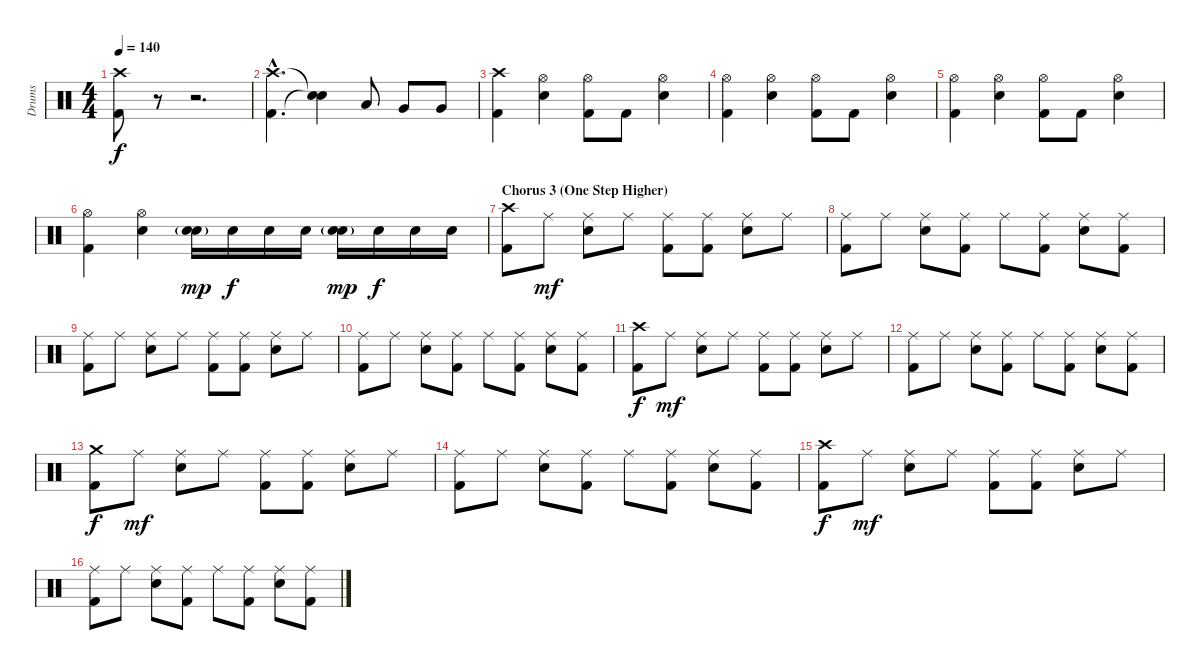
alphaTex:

\track ("Drums" "Drums") {instrument percussion}
\staff {score}
\articulation defaults
\ts (4 4)
\tempo 140
\clef neutral
\ks c
("Crash high (hit)" "Kick (hit) 2").8{dy f} r.8 r.2{d} |
("Crash high (hit)"{hac} "Kick (hit) 2"{hac}).4{d} ("Snare (hit)"{t} "Snare (hit)"{t}).4 "Low Tom (hit)".8 "Very Low Tom (hit)".8 "Very Low Tom (hit)".8 |
("Crash high (hit)" "Kick (hit) 2").4 ("Hi-Hat (open)" "Electric Snare (hit)").4 ("Hi-Hat (open)" "Kick (hit) 2").8 "Kick (hit) 2".8 ("Hi-Hat (open)" "Electric Snare (hit)").4 |
("Hi-Hat (open)" "Kick (hit) 2").4 ("Hi-Hat (open)" "Electric Snare (hit)").4 ("Hi-Hat (open)" "Kick (hit) 2").8 "Kick (hit) 2".8 ("Hi-Hat (open)" "Electric Snare (hit)").4 |
("Hi-Hat (open)" "Kick (hit) 2").4 ("Hi-Hat (open)" "Electric Snare (hit)").4 ("Hi-Hat (open)" "Kick (hit) 2").8 "Kick (hit) 2".8 ("Hi-Hat (open)" "Electric Snare (hit)").4 |
("Hi-Hat (open)" "Kick (hit) 2").4 ("Hi-Hat (open)" "Electric Snare (hit)").4 ("Electric Snare (hit)"{g} "Electric Snare (hit)").16{dy mp} "Electric Snare (hit)".16{dy f} "Electric Snare (hit)".16 "Electric Snare (hit)".16 ("Electric Snare (hit)"{g} "Electric Snare (hit)").16{dy mp} "Electric Snare (hit)".16{dy f} "Electric Snare (hit)".16 "Electric Snare (hit)".16 |
\section ("" "Chorus 3 (One Step Higher)")
("Crash high (hit)" "Kick (hit) 2").8 "Ride (middle)".8{dy mf} ("Ride (middle)" "Electric Snare (hit)").8 "Ride (middle)".8 ("Ride (middle)" "Kick (hit) 2").8 ("Ride (middle)" "Kick (hit) 2").8 ("Ride (middle)" "Electric Snare (hit)").8 "Ride (middle)".8 |
("Ride (middle)" "Kick (hit) 2").8 "Ride (middle)".8 ("Ride (middle)" "Electric Snare (hit)").8 ("Ride (middle)" "Kick (hit) 2").8 "Ride (middle)".8 ("Ride (middle)" "Kick (hit) 2").8 ("Ride (middle)" "Electric Snare (hit)").8 ("Ride (middle)" "Kick (hit) 2").8 |
("Ride (middle)" "Kick (hit) 2").8 "Ride (middle)".8 ("Ride (middle)" "Electric Snare (hit)").8 "Ride (middle)".8 ("Ride (middle)" "Kick (hit) 2").8 ("Ride (middle)" "Kick (hit) 2").8 ("Ride (middle)" "Electric Snare (hit)").8 "Ride (middle)".8 |
("Ride (middle)" "Kick (hit) 2").8 "Ride (middle)".8 ("Ride (middle)" "Electric Snare (hit)").8 ("Ride (middle)" "Kick (hit) 2").8 "Ride (middle)".8 ("Ride (middle)" "Kick (hit) 2").8 ("Ride (middle)" "Electric Snare (hit)").8 ("Ride (middle)" "Kick (hit) 2").8 |
("Crash high (hit)" "Kick (hit) 2").8{dy f} "Ride (middle)".8{dy mf} ("Ride (middle)" "Electric Snare (hit)").8 "Ride (middle)".8 ("Ride (middle)" "Kick (hit) 2").8 ("Ride (middle)" "Kick (hit) 2").8 ("Ride (middle)" "Electric Snare (hit)").8 "Ride (middle)".8 |
("Ride (middle)" "Kick (hit) 2").8 "Ride (middle)".8 ("Ride (middle)" "Electric Snare (hit)").8 ("Ride (middle)" "Kick (hit) 2").8 "Ride (middle)".8 ("Ride (middle)" "Kick (hit) 2").8 ("Ride (middle)" "Electric Snare (hit)").8 ("Ride (middle)" "Kick (hit) 2").8 |
("Crash medium (hit)" "Kick (hit) 2").8{dy f} "Ride (middle)".8{dy mf} ("Ride (middle)" "Electric Snare (hit)").8 "Ride (middle)".8 ("Ride (middle)" "Kick (hit) 2").8 ("Ride (middle)" "Kick (hit) 2").8 ("Ride (middle)" "Electric Snare (hit)").8 "Ride (middle)".8 |
("Ride (middle)" "Kick (hit) 2").8 "Ride (middle)".8 ("Ride (middle)" "Electric Snare (hit)").8 ("Ride (middle)" "Kick (hit) 2").8 "Ride (middle)".8 ("Ride (middle)" "Kick (hit) 2").8 ("Ride (middle)" "Electric Snare (hit)").8 ("Ride (middle)" "Kick (hit) 2").8 |
("Crash high (hit)" "Kick (hit) 2").8{dy f} "Ride (middle)".8{dy mf} ("Ride (middle)" "Electric Snare (hit)").8 "Ride (middle)".8 ("Ride (middle)" "Kick (hit) 2").8 ("Ride (middle)" "Kick (hit) 2").8 ("Ride (middle)" "Electric Snare (hit)").8 "Ride (middle)".8 |
("Ride (middle)" "Kick (hit) 2").8 "Ride (middle)".8 ("Ride (middle)" "Electric Snare (hit)").8 ("Ride (middle)" "Kick (hit) 2").8 "Ride (middle)".8 ("Ride (middle)" "Kick (hit) 2").8 ("Ride (middle)" "Electric Snare (hit)").8 ("Ride (middle)" "Kick (hit) 2").8
